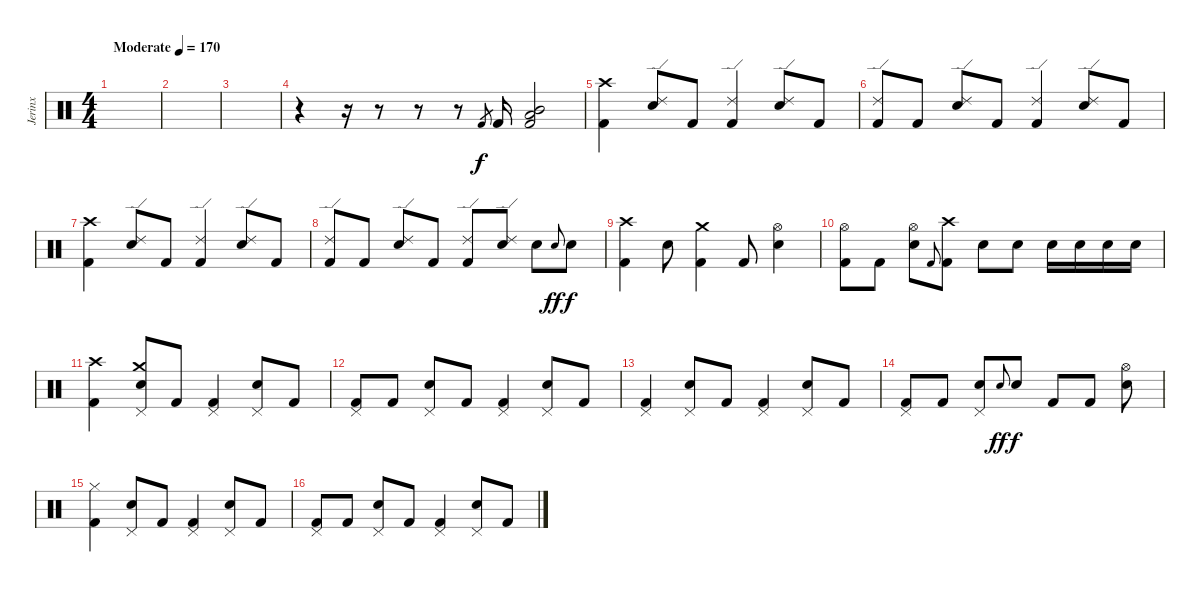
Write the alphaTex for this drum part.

\track ("Jerinx" "Jerinx") {instrument percussion}
\staff {score}
\articulation defaults
\ts (4 4)
\tempo (170 "Moderate")
\clef neutral
\ks c
|
|
|
r.4 r.16 r.8 r.8 r.8 "Kick (hit) 2".8{gr} "Kick (hit) 2".16{dy f} ("Kick (hit) 2" "Low Floor Tom (hit)" "Mid Tom (hit)").2 |
("Kick (hit) 2" "Crash high (hit)").4 ("Electric Snare (hit)" "Ride (edge) 2").8 "Kick (hit) 2".8 ("Kick (hit) 2" "Ride (edge) 2").4 ("Electric Snare (hit)" "Ride (edge) 2").8 "Kick (hit) 2".8 |
("Kick (hit) 2" "Ride (edge) 2").8 "Kick (hit) 2".8 ("Electric Snare (hit)" "Ride (edge) 2").8 "Kick (hit) 2".8 ("Kick (hit) 2" "Ride (edge) 2").4 ("Electric Snare (hit)" "Ride (edge) 2").8 "Kick (hit) 2".8 |
("Kick (hit) 2" "Crash high (hit)").4 ("Electric Snare (hit)" "Ride (edge) 2").8 "Kick (hit) 2".8 ("Kick (hit) 2" "Ride (edge) 2").4 ("Electric Snare (hit)" "Ride (edge) 2").8 "Kick (hit) 2".8 |
("Kick (hit) 2" "Ride (edge) 2").8 "Kick (hit) 2".8 ("Electric Snare (hit)" "Ride (edge) 2").8 "Kick (hit) 2".8 ("Kick (hit) 2" "Ride (edge) 2").8 ("Electric Snare (hit)" "Ride (edge) 2").8 "Electric Snare (hit)".8 "Electric Snare (hit)"{h}.8{gr onbeat dy ff} "Electric Snare (hit)".8{dy f} |
("Kick (hit) 2" "Crash high (hit)").4 "Electric Snare (hit)".8 ("Kick (hit) 2" "Crash medium (hit)").4 "Kick (hit) 2".8 ("Electric Snare (hit)" "Hi-Hat (open)").4 |
("Kick (hit) 2" "Hi-Hat (open)").8 "Kick (hit) 2".8 ("Electric Snare (hit)" "Hi-Hat (open)").8 "Kick (hit) 2".8{gr onbeat} ("Kick (hit) 2" "Crash high (hit)").8 "Electric Snare (hit)".8 "Electric Snare (hit)".8 "Electric Snare (hit)".16 "Electric Snare (hit)".16 "Electric Snare (hit)".16 "Electric Snare (hit)".16 |
("Kick (hit) 2" "Crash high (hit)").4 ("Electric Snare (hit)" "Pedal Hi-Hat (hit)" "Crash medium (hit)").8 "Kick (hit) 2".8 ("Kick (hit) 2" "Pedal Hi-Hat (hit)").4 ("Electric Snare (hit)" "Pedal Hi-Hat (hit)").8 "Kick (hit) 2".8 |
("Kick (hit) 2" "Pedal Hi-Hat (hit)").8 "Kick (hit) 2".8 ("Electric Snare (hit)" "Pedal Hi-Hat (hit)").8 "Kick (hit) 2".8 ("Kick (hit) 2" "Pedal Hi-Hat (hit)").4 ("Electric Snare (hit)" "Pedal Hi-Hat (hit)").8 "Kick (hit) 2".8 |
("Kick (hit) 2" "Pedal Hi-Hat (hit)").4 ("Electric Snare (hit)" "Pedal Hi-Hat (hit)").8 "Kick (hit) 2".8 ("Kick (hit) 2" "Pedal Hi-Hat (hit)").4 ("Electric Snare (hit)" "Pedal Hi-Hat (hit)").8 "Kick (hit) 2".8 |
("Kick (hit) 2" "Pedal Hi-Hat (hit)").8 "Kick (hit) 2".8 ("Electric Snare (hit)" "Pedal Hi-Hat (hit)").8 "Electric Snare (hit)".8{gr onbeat dy ff} "Electric Snare (hit)".8{dy f} "Kick (hit) 2".8 "Kick (hit) 2".8 ("Electric Snare (hit)" "Hi-Hat (open)").8 |
("Kick (hit) 2" "Hi-Hat (closed)").4 ("Electric Snare (hit)" "Pedal Hi-Hat (hit)").8 "Kick (hit) 2".8 ("Kick (hit) 2" "Pedal Hi-Hat (hit)").4 ("Electric Snare (hit)" "Pedal Hi-Hat (hit)").8 "Kick (hit) 2".8 |
("Kick (hit) 2" "Pedal Hi-Hat (hit)").8 "Kick (hit) 2".8 ("Electric Snare (hit)" "Pedal Hi-Hat (hit)").8 "Kick (hit) 2".8 ("Kick (hit) 2" "Pedal Hi-Hat (hit)").4 ("Electric Snare (hit)" "Pedal Hi-Hat (hit)").8 "Kick (hit) 2".8
